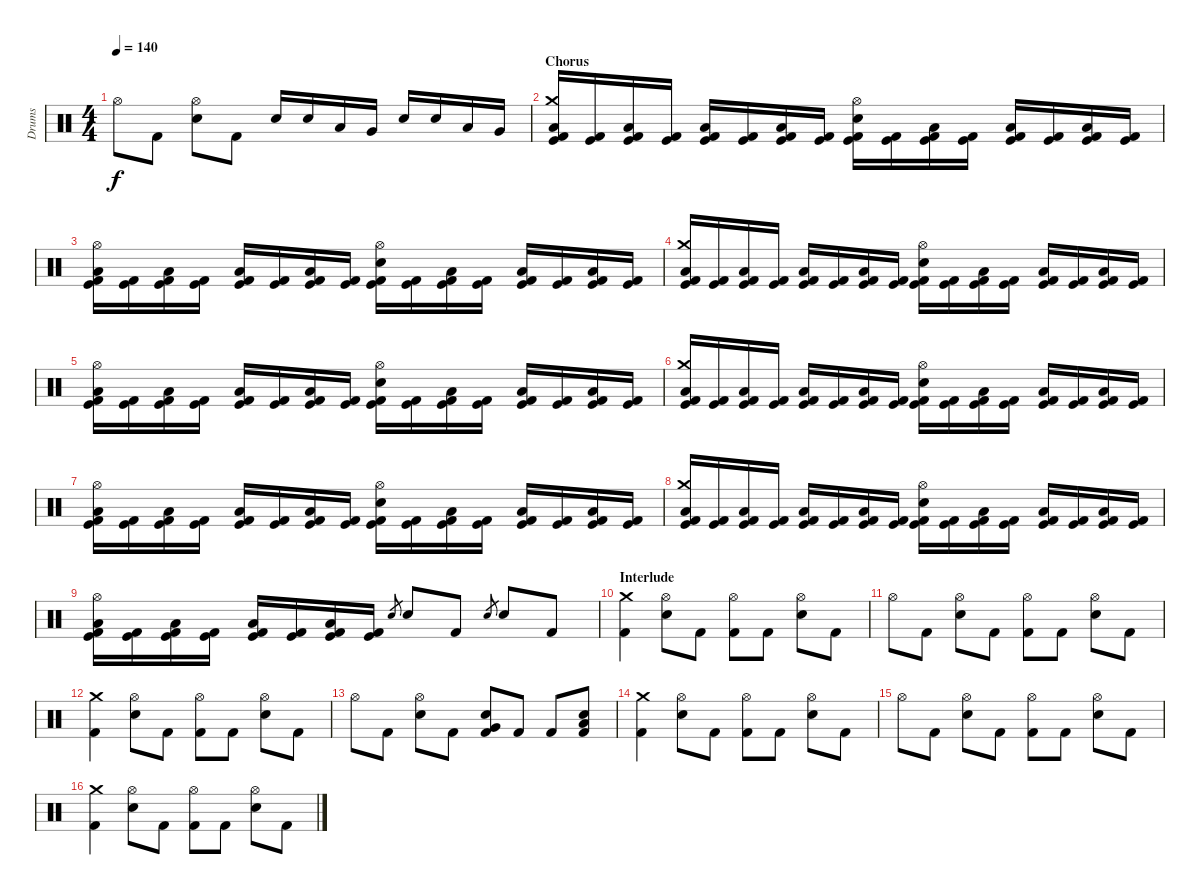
\track ("Drums" "Drums") {instrument percussion}
\staff {score}
\articulation defaults
\ts (4 4)
\tempo 140
\clef neutral
\ks c "Hi-Hat (open)".8{dy f} "Kick (hit) 2".8
("Hi-Hat (open)" "Electric Snare (hit)").8 "Kick (hit) 2".8 "Electric Snare (hit)".16 "Electric Snare (hit)".16 "Low Tom (hit)".16 "Very Low Tom (hit)".16 "Electric Snare (hit)".16 "Electric Snare (hit)".16 "Low Tom (hit)".16 "Very Low Tom (hit)".16 |
\section ("" "Chorus")
("Crash medium (hit)" "Kick (hit) 2" "Kick (hit)" "Low Tom (hit)").16 ("Kick (hit) 2" "Kick (hit)").16 ("Kick (hit) 2" "Kick (hit)" "Low Tom (hit)").16 ("Kick (hit) 2" "Kick (hit)").16 ("Kick (hit) 2" "Kick (hit)" "Low Tom (hit)").16 ("Kick (hit) 2" "Kick (hit)").16 ("Kick (hit) 2" "Kick (hit)" "Low Tom (hit)").16 ("Kick (hit) 2" "Kick (hit)").16 ("Hi-Hat (open)" "Kick (hit) 2" "Kick (hit)" "Electric Snare (hit)").16 ("Kick (hit) 2" "Kick (hit)").16 ("Kick (hit) 2" "Kick (hit)" "Low Tom (hit)").16 ("Kick (hit) 2" "Kick (hit)").16 ("Kick (hit) 2" "Kick (hit)" "Low Tom (hit)").16 ("Kick (hit) 2" "Kick (hit)").16 ("Kick (hit) 2" "Kick (hit)" "Low Tom (hit)").16 ("Kick (hit) 2" "Kick (hit)").16 |
("Hi-Hat (open)" "Kick (hit) 2" "Kick (hit)" "Low Tom (hit)").16 ("Kick (hit) 2" "Kick (hit)").16 ("Kick (hit) 2" "Kick (hit)" "Low Tom (hit)").16 ("Kick (hit) 2" "Kick (hit)").16 ("Kick (hit) 2" "Kick (hit)" "Low Tom (hit)").16 ("Kick (hit) 2" "Kick (hit)").16 ("Kick (hit) 2" "Kick (hit)" "Low Tom (hit)").16 ("Kick (hit) 2" "Kick (hit)").16 ("Hi-Hat (open)" "Kick (hit) 2" "Kick (hit)" "Electric Snare (hit)").16 ("Kick (hit) 2" "Kick (hit)").16 ("Kick (hit) 2" "Kick (hit)" "Low Tom (hit)").16 ("Kick (hit) 2" "Kick (hit)").16 ("Kick (hit) 2" "Kick (hit)" "Low Tom (hit)").16 ("Kick (hit) 2" "Kick (hit)").16 ("Kick (hit) 2" "Kick (hit)" "Low Tom (hit)").16 ("Kick (hit) 2" "Kick (hit)").16 |
("Crash medium (hit)" "Kick (hit) 2" "Kick (hit)" "Low Tom (hit)").16 ("Kick (hit) 2" "Kick (hit)").16 ("Kick (hit) 2" "Kick (hit)" "Low Tom (hit)").16 ("Kick (hit) 2" "Kick (hit)").16 ("Kick (hit) 2" "Kick (hit)" "Low Tom (hit)").16 ("Kick (hit) 2" "Kick (hit)").16 ("Kick (hit) 2" "Kick (hit)" "Low Tom (hit)").16 ("Kick (hit) 2" "Kick (hit)").16 ("Hi-Hat (open)" "Kick (hit) 2" "Kick (hit)" "Electric Snare (hit)").16 ("Kick (hit) 2" "Kick (hit)").16 ("Kick (hit) 2" "Kick (hit)" "Low Tom (hit)").16 ("Kick (hit) 2" "Kick (hit)").16 ("Kick (hit) 2" "Kick (hit)" "Low Tom (hit)").16 ("Kick (hit) 2" "Kick (hit)").16 ("Kick (hit) 2" "Kick (hit)" "Low Tom (hit)").16 ("Kick (hit) 2" "Kick (hit)").16 |
("Hi-Hat (open)" "Kick (hit) 2" "Kick (hit)" "Low Tom (hit)").16 ("Kick (hit) 2" "Kick (hit)").16 ("Kick (hit) 2" "Kick (hit)" "Low Tom (hit)").16 ("Kick (hit) 2" "Kick (hit)").16 ("Kick (hit) 2" "Kick (hit)" "Low Tom (hit)").16 ("Kick (hit) 2" "Kick (hit)").16 ("Kick (hit) 2" "Kick (hit)" "Low Tom (hit)").16 ("Kick (hit) 2" "Kick (hit)").16 ("Hi-Hat (open)" "Kick (hit) 2" "Kick (hit)" "Electric Snare (hit)").16 ("Kick (hit) 2" "Kick (hit)").16 ("Kick (hit) 2" "Kick (hit)" "Low Tom (hit)").16 ("Kick (hit) 2" "Kick (hit)").16 ("Kick (hit) 2" "Kick (hit)" "Low Tom (hit)").16 ("Kick (hit) 2" "Kick (hit)").16 ("Kick (hit) 2" "Kick (hit)" "Low Tom (hit)").16 ("Kick (hit) 2" "Kick (hit)").16 |
("Crash medium (hit)" "Kick (hit) 2" "Kick (hit)" "Low Tom (hit)").16 ("Kick (hit) 2" "Kick (hit)").16 ("Kick (hit) 2" "Kick (hit)" "Low Tom (hit)").16 ("Kick (hit) 2" "Kick (hit)").16 ("Kick (hit) 2" "Kick (hit)" "Low Tom (hit)").16 ("Kick (hit) 2" "Kick (hit)").16 ("Kick (hit) 2" "Kick (hit)" "Low Tom (hit)").16 ("Kick (hit) 2" "Kick (hit)").16 ("Hi-Hat (open)" "Kick (hit) 2" "Kick (hit)" "Electric Snare (hit)").16 ("Kick (hit) 2" "Kick (hit)").16 ("Kick (hit) 2" "Kick (hit)" "Low Tom (hit)").16 ("Kick (hit) 2" "Kick (hit)").16 ("Kick (hit) 2" "Kick (hit)" "Low Tom (hit)").16 ("Kick (hit) 2" "Kick (hit)").16 ("Kick (hit) 2" "Kick (hit)" "Low Tom (hit)").16 ("Kick (hit) 2" "Kick (hit)").16 |
("Hi-Hat (open)" "Kick (hit) 2" "Kick (hit)" "Low Tom (hit)").16 ("Kick (hit) 2" "Kick (hit)").16 ("Kick (hit) 2" "Kick (hit)" "Low Tom (hit)").16 ("Kick (hit) 2" "Kick (hit)").16 ("Kick (hit) 2" "Kick (hit)" "Low Tom (hit)").16 ("Kick (hit) 2" "Kick (hit)").16 ("Kick (hit) 2" "Kick (hit)" "Low Tom (hit)").16 ("Kick (hit) 2" "Kick (hit)").16 ("Hi-Hat (open)" "Kick (hit) 2" "Kick (hit)" "Electric Snare (hit)").16 ("Kick (hit) 2" "Kick (hit)").16 ("Kick (hit) 2" "Kick (hit)" "Low Tom (hit)").16 ("Kick (hit) 2" "Kick (hit)").16 ("Kick (hit) 2" "Kick (hit)" "Low Tom (hit)").16 ("Kick (hit) 2" "Kick (hit)").16 ("Kick (hit) 2" "Kick (hit)" "Low Tom (hit)").16 ("Kick (hit) 2" "Kick (hit)").16 |
("Crash medium (hit)" "Kick (hit) 2" "Kick (hit)" "Low Tom (hit)").16 ("Kick (hit) 2" "Kick (hit)").16 ("Kick (hit) 2" "Kick (hit)" "Low Tom (hit)").16 ("Kick (hit) 2" "Kick (hit)").16 ("Kick (hit) 2" "Kick (hit)" "Low Tom (hit)").16 ("Kick (hit) 2" "Kick (hit)").16 ("Kick (hit) 2" "Kick (hit)" "Low Tom (hit)").16 ("Kick (hit) 2" "Kick (hit)").16 ("Hi-Hat (open)" "Kick (hit) 2" "Kick (hit)" "Electric Snare (hit)").16 ("Kick (hit) 2" "Kick (hit)").16 ("Kick (hit) 2" "Kick (hit)" "Low Tom (hit)").16 ("Kick (hit) 2" "Kick (hit)").16 ("Kick (hit) 2" "Kick (hit)" "Low Tom (hit)").16 ("Kick (hit) 2" "Kick (hit)").16 ("Kick (hit) 2" "Kick (hit)" "Low Tom (hit)").16 ("Kick (hit) 2" "Kick (hit)").16 |
("Hi-Hat (open)" "Kick (hit) 2" "Kick (hit)" "Low Tom (hit)").16 ("Kick (hit) 2" "Kick (hit)").16 ("Kick (hit) 2" "Kick (hit)" "Low Tom (hit)").16 ("Kick (hit) 2" "Kick (hit)").16 ("Kick (hit) 2" "Kick (hit)" "Low Tom (hit)").16 ("Kick (hit) 2" "Kick (hit)").16 ("Kick (hit) 2" "Kick (hit)" "Low Tom (hit)").16 ("Kick (hit) 2" "Kick (hit)").16 "Electric Snare (hit)".8{gr} "Electric Snare (hit)".8 "Kick (hit) 2".8 "Electric Snare (hit)".8{gr} "Electric Snare (hit)".8 "Kick (hit) 2".8 |
\section ("" "Interlude")
("Crash medium (hit)" "Kick (hit) 2").4 ("Hi-Hat (open)" "Electric Snare (hit)").8 "Kick (hit) 2".8 ("Hi-Hat (open)" "Kick (hit) 2").8 "Kick (hit) 2".8 ("Hi-Hat (open)" "Electric Snare (hit)").8 "Kick (hit) 2".8 |
"Hi-Hat (open)".8 "Kick (hit) 2".8 ("Hi-Hat (open)" "Electric Snare (hit)").8 "Kick (hit) 2".8 ("Hi-Hat (open)" "Kick (hit) 2").8 "Kick (hit) 2".8 ("Hi-Hat (open)" "Electric Snare (hit)").8 "Kick (hit) 2".8 |
("Crash medium (hit)" "Kick (hit) 2").4 ("Hi-Hat (open)" "Electric Snare (hit)").8 "Kick (hit) 2".8 ("Hi-Hat (open)" "Kick (hit) 2").8 "Kick (hit) 2".8 ("Hi-Hat (open)" "Electric Snare (hit)").8 "Kick (hit) 2".8 |
"Hi-Hat (open)".8 "Kick (hit) 2".8 ("Hi-Hat (open)" "Electric Snare (hit)").8 "Kick (hit) 2".8 ("Very Low Tom (hit)" "Electric Snare (hit)" "Kick (hit) 2").8 "Kick (hit) 2".8 "Kick (hit) 2".8 ("Low Tom (hit)" "Electric Snare (hit)" "Kick (hit) 2").8 |
("Crash medium (hit)" "Kick (hit) 2").4 ("Hi-Hat (open)" "Electric Snare (hit)").8 "Kick (hit) 2".8 ("Hi-Hat (open)" "Kick (hit) 2").8 "Kick (hit) 2".8 ("Hi-Hat (open)" "Electric Snare (hit)").8 "Kick (hit) 2".8 |
"Hi-Hat (open)".8 "Kick (hit) 2".8 ("Hi-Hat (open)" "Electric Snare (hit)").8 "Kick (hit) 2".8 ("Hi-Hat (open)" "Kick (hit) 2").8 "Kick (hit) 2".8 ("Hi-Hat (open)" "Electric Snare (hit)").8 "Kick (hit) 2".8 |
("Crash medium (hit)" "Kick (hit) 2").4 ("Hi-Hat (open)" "Electric Snare (hit)").8 "Kick (hit) 2".8 ("Hi-Hat (open)" "Kick (hit) 2").8 "Kick (hit) 2".8 ("Hi-Hat (open)" "Electric Snare (hit)").8 "Kick (hit) 2".8
